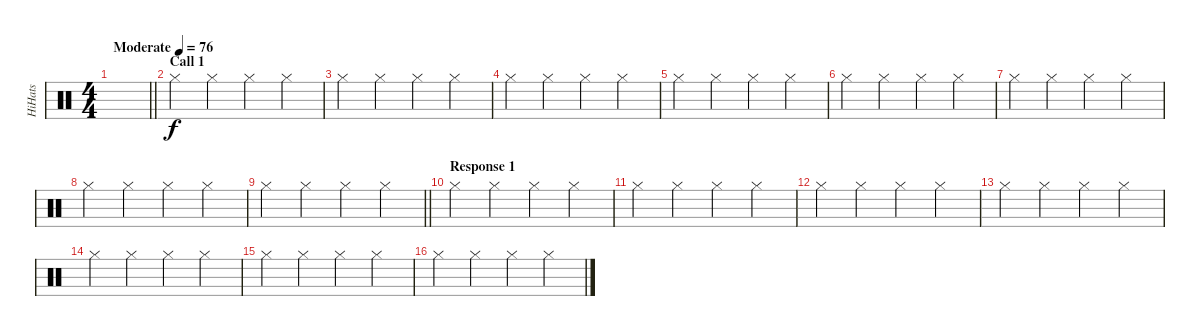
\track ("HiHats" "HiHats") {instrument percussion}
\staff {score}
\articulation defaults
\ts (4 4)
\tempo (76 "Moderate")
\clef neutral
\barLineRight lightlight
\ks c
|
\section ("" "Call 1")
"Hi-Hat (closed)".4{volume 9} "Hi-Hat (closed)".4 "Hi-Hat (closed)".4 "Hi-Hat (closed)".4 |
"Hi-Hat (closed)".4 "Hi-Hat (closed)".4 "Hi-Hat (closed)".4 "Hi-Hat (closed)".4 |
"Hi-Hat (closed)".4 "Hi-Hat (closed)".4 "Hi-Hat (closed)".4 "Hi-Hat (closed)".4 |
"Hi-Hat (closed)".4 "Hi-Hat (closed)".4 "Hi-Hat (closed)".4 "Hi-Hat (closed)".4 |
"Hi-Hat (closed)".4 "Hi-Hat (closed)".4 "Hi-Hat (closed)".4 "Hi-Hat (closed)".4 |
"Hi-Hat (closed)".4 "Hi-Hat (closed)".4 "Hi-Hat (closed)".4 "Hi-Hat (closed)".4 |
"Hi-Hat (closed)".4 "Hi-Hat (closed)".4 "Hi-Hat (closed)".4 "Hi-Hat (closed)".4 |
\barLineRight lightlight "Hi-Hat (closed)".4 "Hi-Hat (closed)".4 "Hi-Hat (closed)".4 "Hi-Hat (closed)".4
|
\section ("" "Response 1")
"Hi-Hat (closed)".4{volume 9} "Hi-Hat (closed)".4 "Hi-Hat (closed)".4 "Hi-Hat (closed)".4 |
"Hi-Hat (closed)".4 "Hi-Hat (closed)".4 "Hi-Hat (closed)".4 "Hi-Hat (closed)".4 |
"Hi-Hat (closed)".4 "Hi-Hat (closed)".4 "Hi-Hat (closed)".4 "Hi-Hat (closed)".4 |
"Hi-Hat (closed)".4 "Hi-Hat (closed)".4 "Hi-Hat (closed)".4 "Hi-Hat (closed)".4 |
"Hi-Hat (closed)".4 "Hi-Hat (closed)".4 "Hi-Hat (closed)".4 "Hi-Hat (closed)".4 |
"Hi-Hat (closed)".4 "Hi-Hat (closed)".4 "Hi-Hat (closed)".4 "Hi-Hat (closed)".4 |
"Hi-Hat (closed)".4 "Hi-Hat (closed)".4 "Hi-Hat (closed)".4 "Hi-Hat (closed)".4
